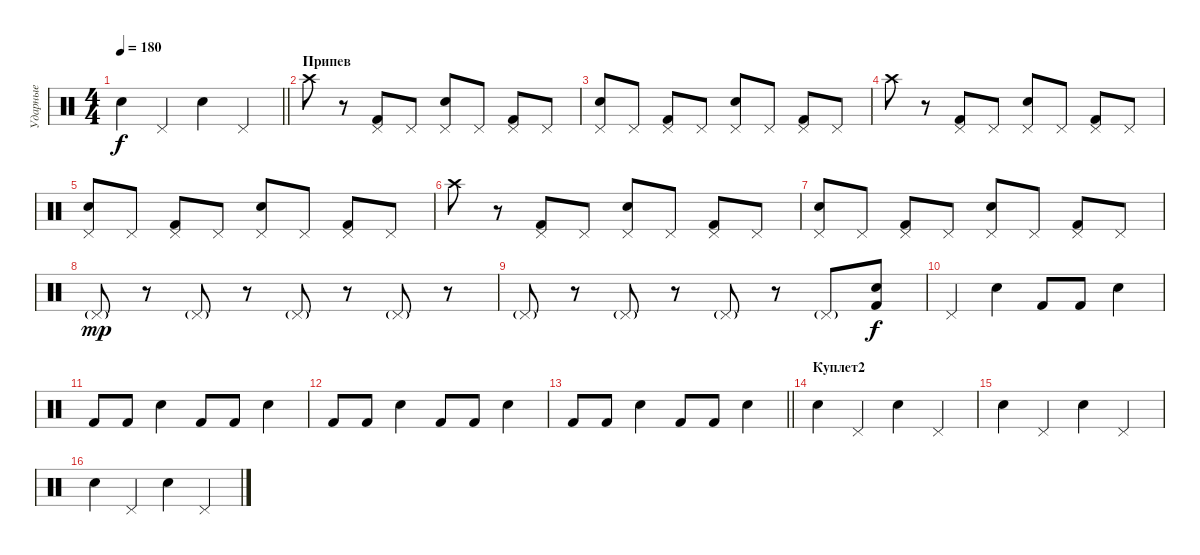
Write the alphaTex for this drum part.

\track ("Ударные" "Ударные") {instrument percussion}
\staff {score}
\articulation defaults
\ts (4 4)
\tempo 180
\clef neutral
\barLineRight lightlight
\ks c "Snare (hit) 2".4{dy f} "Pedal Hi-Hat (hit)".4 "Snare (hit) 2".4 "Pedal Hi-Hat (hit)".4
|
\section ("" "Припев")
"Crash high (hit)".8 r.8 ("Kick (hit) 2" "Pedal Hi-Hat (hit)").8 "Pedal Hi-Hat (hit)".8 ("Snare (hit) 2" "Pedal Hi-Hat (hit)").8 "Pedal Hi-Hat (hit)".8 ("Kick (hit) 2" "Pedal Hi-Hat (hit)").8 "Pedal Hi-Hat (hit)".8 |
("Snare (hit) 2" "Pedal Hi-Hat (hit)").8 "Pedal Hi-Hat (hit)".8 ("Kick (hit) 2" "Pedal Hi-Hat (hit)").8 "Pedal Hi-Hat (hit)".8 ("Snare (hit) 2" "Pedal Hi-Hat (hit)").8 "Pedal Hi-Hat (hit)".8 ("Kick (hit) 2" "Pedal Hi-Hat (hit)").8 "Pedal Hi-Hat (hit)".8 |
"Crash high (hit)".8 r.8 ("Kick (hit) 2" "Pedal Hi-Hat (hit)").8 "Pedal Hi-Hat (hit)".8 ("Snare (hit) 2" "Pedal Hi-Hat (hit)").8 "Pedal Hi-Hat (hit)".8 ("Kick (hit) 2" "Pedal Hi-Hat (hit)").8 "Pedal Hi-Hat (hit)".8 |
("Snare (hit) 2" "Pedal Hi-Hat (hit)").8 "Pedal Hi-Hat (hit)".8 ("Kick (hit) 2" "Pedal Hi-Hat (hit)").8 "Pedal Hi-Hat (hit)".8 ("Snare (hit) 2" "Pedal Hi-Hat (hit)").8 "Pedal Hi-Hat (hit)".8 ("Kick (hit) 2" "Pedal Hi-Hat (hit)").8 "Pedal Hi-Hat (hit)".8 |
"Crash high (hit)".8 r.8 ("Kick (hit) 2" "Pedal Hi-Hat (hit)").8 "Pedal Hi-Hat (hit)".8 ("Snare (hit) 2" "Pedal Hi-Hat (hit)").8 "Pedal Hi-Hat (hit)".8 ("Kick (hit) 2" "Pedal Hi-Hat (hit)").8 "Pedal Hi-Hat (hit)".8 |
("Snare (hit) 2" "Pedal Hi-Hat (hit)").8 "Pedal Hi-Hat (hit)".8 ("Kick (hit) 2" "Pedal Hi-Hat (hit)").8 "Pedal Hi-Hat (hit)".8 ("Snare (hit) 2" "Pedal Hi-Hat (hit)").8 "Pedal Hi-Hat (hit)".8 ("Kick (hit) 2" "Pedal Hi-Hat (hit)").8 "Pedal Hi-Hat (hit)".8 |
"Pedal Hi-Hat (hit)"{g}.8{dy mp} r.8 "Pedal Hi-Hat (hit)"{g}.8 r.8 "Pedal Hi-Hat (hit)"{g}.8 r.8 "Pedal Hi-Hat (hit)"{g}.8 r.8 |
"Pedal Hi-Hat (hit)"{g}.8 r.8 "Pedal Hi-Hat (hit)"{g}.8 r.8 "Pedal Hi-Hat (hit)"{g}.8 r.8 "Pedal Hi-Hat (hit)"{g}.8 ("Kick (hit) 2" "Snare (hit) 2").8{dy f} |
"Pedal Hi-Hat (hit)".4 "Electric Snare (hit)".4 "Kick (hit) 2".8 "Kick (hit) 2".8 "Electric Snare (hit)".4 |
"Kick (hit) 2".8 "Kick (hit) 2".8 "Electric Snare (hit)".4 "Kick (hit) 2".8 "Kick (hit) 2".8 "Electric Snare (hit)".4 |
"Kick (hit) 2".8 "Kick (hit) 2".8 "Electric Snare (hit)".4 "Kick (hit) 2".8 "Kick (hit) 2".8 "Electric Snare (hit)".4 |
\barLineRight lightlight "Kick (hit) 2".8 "Kick (hit) 2".8 "Electric Snare (hit)".4 "Kick (hit) 2".8 "Kick (hit) 2".8 "Electric Snare (hit)".4
|
\section ("" "Куплет2")
"Snare (hit) 2".4 "Pedal Hi-Hat (hit)".4 "Snare (hit) 2".4 "Pedal Hi-Hat (hit)".4 |
"Snare (hit) 2".4 "Pedal Hi-Hat (hit)".4 "Snare (hit) 2".4 "Pedal Hi-Hat (hit)".4 |
"Snare (hit) 2".4 "Pedal Hi-Hat (hit)".4 "Snare (hit) 2".4 "Pedal Hi-Hat (hit)".4
